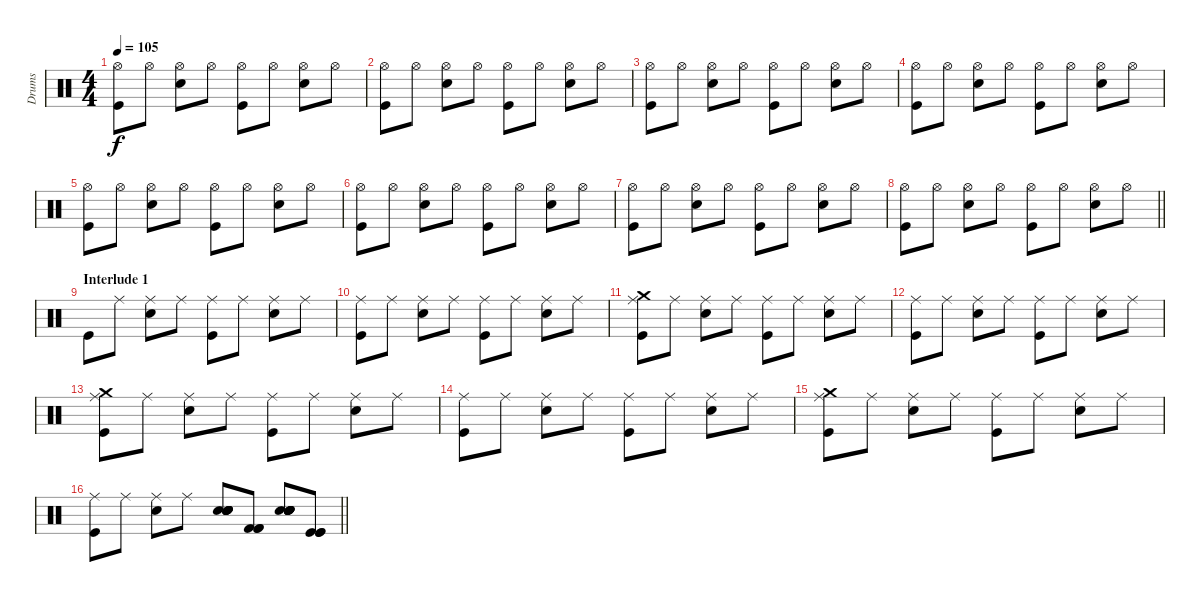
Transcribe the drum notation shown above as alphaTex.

\track ("Drums" "Drums") {instrument percussion}
\staff {score}
\articulation defaults
\ts (4 4)
\tempo 105
\clef neutral
\ks c
("Kick (hit)" "Hi-Hat (open)").8{dy f} "Hi-Hat (open)".8 ("Electric Snare (hit)" "Hi-Hat (open)").8 "Hi-Hat (open)".8 ("Kick (hit)" "Hi-Hat (open)").8 "Hi-Hat (open)".8 ("Electric Snare (hit)" "Hi-Hat (open)").8 "Hi-Hat (open)".8 |
("Kick (hit)" "Hi-Hat (open)").8 "Hi-Hat (open)".8 ("Electric Snare (hit)" "Hi-Hat (open)").8 "Hi-Hat (open)".8 ("Kick (hit)" "Hi-Hat (open)").8 "Hi-Hat (open)".8 ("Electric Snare (hit)" "Hi-Hat (open)").8 "Hi-Hat (open)".8 |
("Kick (hit)" "Hi-Hat (open)").8 "Hi-Hat (open)".8 ("Electric Snare (hit)" "Hi-Hat (open)").8 "Hi-Hat (open)".8 ("Kick (hit)" "Hi-Hat (open)").8 "Hi-Hat (open)".8 ("Electric Snare (hit)" "Hi-Hat (open)").8 "Hi-Hat (open)".8 |
("Kick (hit)" "Hi-Hat (open)").8 "Hi-Hat (open)".8 ("Electric Snare (hit)" "Hi-Hat (open)").8 "Hi-Hat (open)".8 ("Kick (hit)" "Hi-Hat (open)").8 "Hi-Hat (open)".8 ("Electric Snare (hit)" "Hi-Hat (open)").8 "Hi-Hat (open)".8 |
("Kick (hit)" "Hi-Hat (open)").8 "Hi-Hat (open)".8 ("Electric Snare (hit)" "Hi-Hat (open)").8 "Hi-Hat (open)".8 ("Kick (hit)" "Hi-Hat (open)").8 "Hi-Hat (open)".8 ("Electric Snare (hit)" "Hi-Hat (open)").8 "Hi-Hat (open)".8 |
("Kick (hit)" "Hi-Hat (open)").8 "Hi-Hat (open)".8 ("Electric Snare (hit)" "Hi-Hat (open)").8 "Hi-Hat (open)".8 ("Kick (hit)" "Hi-Hat (open)").8 "Hi-Hat (open)".8 ("Electric Snare (hit)" "Hi-Hat (open)").8 "Hi-Hat (open)".8 |
("Kick (hit)" "Hi-Hat (open)").8 "Hi-Hat (open)".8 ("Electric Snare (hit)" "Hi-Hat (open)").8 "Hi-Hat (open)".8 ("Kick (hit)" "Hi-Hat (open)").8 "Hi-Hat (open)".8 ("Electric Snare (hit)" "Hi-Hat (open)").8 "Hi-Hat (open)".8 |
\barLineRight lightlight
("Kick (hit)" "Hi-Hat (open)").8 "Hi-Hat (open)".8 ("Electric Snare (hit)" "Hi-Hat (open)").8 "Hi-Hat (open)".8 ("Kick (hit)" "Hi-Hat (open)").8 "Hi-Hat (open)".8 ("Electric Snare (hit)" "Hi-Hat (open)").8 "Hi-Hat (open)".8 |
\section ("" "Interlude 1")
"Kick (hit)".8 "Ride (middle)".8 ("Electric Snare (hit)" "Ride (middle)").8 "Ride (middle)".8 ("Kick (hit)" "Ride (middle)").8 "Ride (middle)".8 ("Electric Snare (hit)" "Ride (middle)").8 "Ride (middle)".8 |
("Kick (hit)" "Ride (middle)").8 "Ride (middle)".8 ("Electric Snare (hit)" "Ride (middle)").8 "Ride (middle)".8 ("Kick (hit)" "Ride (middle)").8 "Ride (middle)".8 ("Electric Snare (hit)" "Ride (middle)").8 "Ride (middle)".8 |
("Crash medium (hit)" "Kick (hit)" "Ride (middle)").8 "Ride (middle)".8 ("Electric Snare (hit)" "Ride (middle)").8 "Ride (middle)".8 ("Kick (hit)" "Ride (middle)").8 "Ride (middle)".8 ("Electric Snare (hit)" "Ride (middle)").8 "Ride (middle)".8 |
("Kick (hit)" "Ride (middle)").8 "Ride (middle)".8 ("Electric Snare (hit)" "Ride (middle)").8 "Ride (middle)".8 ("Kick (hit)" "Ride (middle)").8 "Ride (middle)".8 ("Electric Snare (hit)" "Ride (middle)").8 "Ride (middle)".8 |
("Crash medium (hit)" "Kick (hit)" "Ride (middle)").8 "Ride (middle)".8 ("Electric Snare (hit)" "Ride (middle)").8 "Ride (middle)".8 ("Kick (hit)" "Ride (middle)").8 "Ride (middle)".8 ("Electric Snare (hit)" "Ride (middle)").8 "Ride (middle)".8 |
("Kick (hit)" "Ride (middle)").8 "Ride (middle)".8 ("Electric Snare (hit)" "Ride (middle)").8 "Ride (middle)".8 ("Kick (hit)" "Ride (middle)").8 "Ride (middle)".8 ("Electric Snare (hit)" "Ride (middle)").8 "Ride (middle)".8 |
("Crash medium (hit)" "Kick (hit)" "Ride (middle)").8 "Ride (middle)".8 ("Electric Snare (hit)" "Ride (middle)").8 "Ride (middle)".8 ("Kick (hit)" "Ride (middle)").8 "Ride (middle)".8 ("Electric Snare (hit)" "Ride (middle)").8 "Ride (middle)".8 |
\barLineRight lightlight
("Kick (hit)" "Ride (middle)").8 "Ride (middle)".8 ("Electric Snare (hit)" "Ride (middle)").8 "Ride (middle)".8 ("Electric Snare (hit)" "Electric Snare (hit)" "Electric Snare (hit)" "Electric Snare (hit)" "Electric Snare (hit)" "Electric Snare (hit)").8 ("Kick (hit) 2" "Kick (hit) 2" "Kick (hit) 2").8 ("Electric Snare (hit)" "Electric Snare (hit)" "Electric Snare (hit)" "Electric Snare (hit)" "Electric Snare (hit)" "Electric Snare (hit)").8 ("Kick (hit)" "Kick (hit)" "Kick (hit)").8
